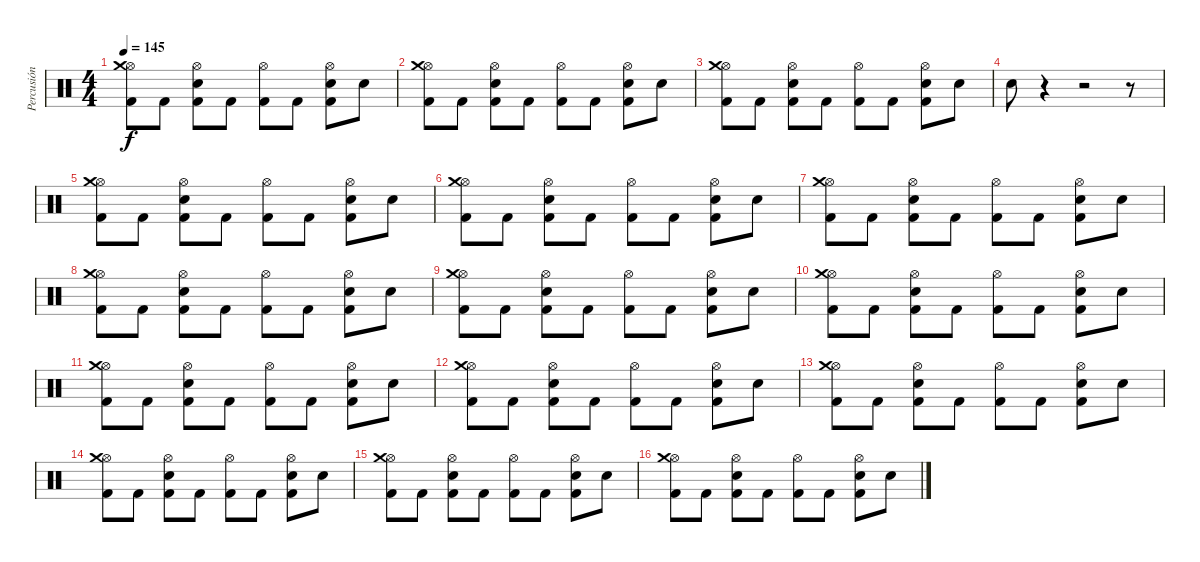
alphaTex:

\track ("Percusión" "Percusión") {instrument percussion}
\staff {score}
\articulation defaults
\ts (4 4)
\tempo 145
\clef neutral
\ks c
("Hi-Hat (open)" "Kick (hit) 2" "Crash medium (hit)").8{dy f} "Kick (hit) 2".8 ("Hi-Hat (open)" "Electric Snare (hit)" "Kick (hit) 2").8 "Kick (hit) 2".8 ("Hi-Hat (open)" "Kick (hit) 2").8 "Kick (hit) 2".8 ("Hi-Hat (open)" "Electric Snare (hit)" "Kick (hit) 2").8 "Electric Snare (hit)".8 |
("Hi-Hat (open)" "Kick (hit) 2" "Crash medium (hit)").8 "Kick (hit) 2".8 ("Hi-Hat (open)" "Electric Snare (hit)" "Kick (hit) 2").8 "Kick (hit) 2".8 ("Hi-Hat (open)" "Kick (hit) 2").8 "Kick (hit) 2".8 ("Hi-Hat (open)" "Electric Snare (hit)" "Kick (hit) 2").8 "Electric Snare (hit)".8 |
("Hi-Hat (open)" "Kick (hit) 2" "Crash medium (hit)").8 "Kick (hit) 2".8 ("Hi-Hat (open)" "Electric Snare (hit)" "Kick (hit) 2").8 "Kick (hit) 2".8 ("Hi-Hat (open)" "Kick (hit) 2").8 "Kick (hit) 2".8 ("Hi-Hat (open)" "Electric Snare (hit)" "Kick (hit) 2").8 "Electric Snare (hit)".8 |
"Electric Snare (hit)".8 r.4 r.2 r.8 |
("Hi-Hat (open)" "Kick (hit) 2" "Crash medium (hit)").8 "Kick (hit) 2".8 ("Hi-Hat (open)" "Electric Snare (hit)" "Kick (hit) 2").8 "Kick (hit) 2".8 ("Hi-Hat (open)" "Kick (hit) 2").8 "Kick (hit) 2".8 ("Hi-Hat (open)" "Electric Snare (hit)" "Kick (hit) 2").8 "Electric Snare (hit)".8 |
("Hi-Hat (open)" "Kick (hit) 2" "Crash medium (hit)").8 "Kick (hit) 2".8 ("Hi-Hat (open)" "Electric Snare (hit)" "Kick (hit) 2").8 "Kick (hit) 2".8 ("Hi-Hat (open)" "Kick (hit) 2").8 "Kick (hit) 2".8 ("Hi-Hat (open)" "Electric Snare (hit)" "Kick (hit) 2").8 "Electric Snare (hit)".8 |
("Hi-Hat (open)" "Kick (hit) 2" "Crash medium (hit)").8 "Kick (hit) 2".8 ("Hi-Hat (open)" "Electric Snare (hit)" "Kick (hit) 2").8 "Kick (hit) 2".8 ("Hi-Hat (open)" "Kick (hit) 2").8 "Kick (hit) 2".8 ("Hi-Hat (open)" "Electric Snare (hit)" "Kick (hit) 2").8 "Electric Snare (hit)".8 |
("Hi-Hat (open)" "Kick (hit) 2" "Crash medium (hit)").8 "Kick (hit) 2".8 ("Hi-Hat (open)" "Electric Snare (hit)" "Kick (hit) 2").8 "Kick (hit) 2".8 ("Hi-Hat (open)" "Kick (hit) 2").8 "Kick (hit) 2".8 ("Hi-Hat (open)" "Electric Snare (hit)" "Kick (hit) 2").8 "Electric Snare (hit)".8 |
("Hi-Hat (open)" "Kick (hit) 2" "Crash medium (hit)").8 "Kick (hit) 2".8 ("Hi-Hat (open)" "Electric Snare (hit)" "Kick (hit) 2").8 "Kick (hit) 2".8 ("Hi-Hat (open)" "Kick (hit) 2").8 "Kick (hit) 2".8 ("Hi-Hat (open)" "Electric Snare (hit)" "Kick (hit) 2").8 "Electric Snare (hit)".8 |
("Hi-Hat (open)" "Kick (hit) 2" "Crash medium (hit)").8 "Kick (hit) 2".8 ("Hi-Hat (open)" "Electric Snare (hit)" "Kick (hit) 2").8 "Kick (hit) 2".8 ("Hi-Hat (open)" "Kick (hit) 2").8 "Kick (hit) 2".8 ("Hi-Hat (open)" "Electric Snare (hit)" "Kick (hit) 2").8 "Electric Snare (hit)".8 |
("Hi-Hat (open)" "Kick (hit) 2" "Crash medium (hit)").8 "Kick (hit) 2".8 ("Hi-Hat (open)" "Electric Snare (hit)" "Kick (hit) 2").8 "Kick (hit) 2".8 ("Hi-Hat (open)" "Kick (hit) 2").8 "Kick (hit) 2".8 ("Hi-Hat (open)" "Electric Snare (hit)" "Kick (hit) 2").8 "Electric Snare (hit)".8 |
("Hi-Hat (open)" "Kick (hit) 2" "Crash medium (hit)").8 "Kick (hit) 2".8 ("Hi-Hat (open)" "Electric Snare (hit)" "Kick (hit) 2").8 "Kick (hit) 2".8 ("Hi-Hat (open)" "Kick (hit) 2").8 "Kick (hit) 2".8 ("Hi-Hat (open)" "Electric Snare (hit)" "Kick (hit) 2").8 "Electric Snare (hit)".8 |
("Hi-Hat (open)" "Kick (hit) 2" "Crash medium (hit)").8 "Kick (hit) 2".8 ("Hi-Hat (open)" "Electric Snare (hit)" "Kick (hit) 2").8 "Kick (hit) 2".8 ("Hi-Hat (open)" "Kick (hit) 2").8 "Kick (hit) 2".8 ("Hi-Hat (open)" "Electric Snare (hit)" "Kick (hit) 2").8 "Electric Snare (hit)".8 |
("Hi-Hat (open)" "Kick (hit) 2" "Crash medium (hit)").8 "Kick (hit) 2".8 ("Hi-Hat (open)" "Electric Snare (hit)" "Kick (hit) 2").8 "Kick (hit) 2".8 ("Hi-Hat (open)" "Kick (hit) 2").8 "Kick (hit) 2".8 ("Hi-Hat (open)" "Electric Snare (hit)" "Kick (hit) 2").8 "Electric Snare (hit)".8 |
("Hi-Hat (open)" "Kick (hit) 2" "Crash medium (hit)").8 "Kick (hit) 2".8 ("Hi-Hat (open)" "Electric Snare (hit)" "Kick (hit) 2").8 "Kick (hit) 2".8 ("Hi-Hat (open)" "Kick (hit) 2").8 "Kick (hit) 2".8 ("Hi-Hat (open)" "Electric Snare (hit)" "Kick (hit) 2").8 "Electric Snare (hit)".8 |
("Hi-Hat (open)" "Kick (hit) 2" "Crash medium (hit)").8 "Kick (hit) 2".8 ("Hi-Hat (open)" "Electric Snare (hit)" "Kick (hit) 2").8 "Kick (hit) 2".8 ("Hi-Hat (open)" "Kick (hit) 2").8 "Kick (hit) 2".8 ("Hi-Hat (open)" "Electric Snare (hit)" "Kick (hit) 2").8 "Electric Snare (hit)".8
